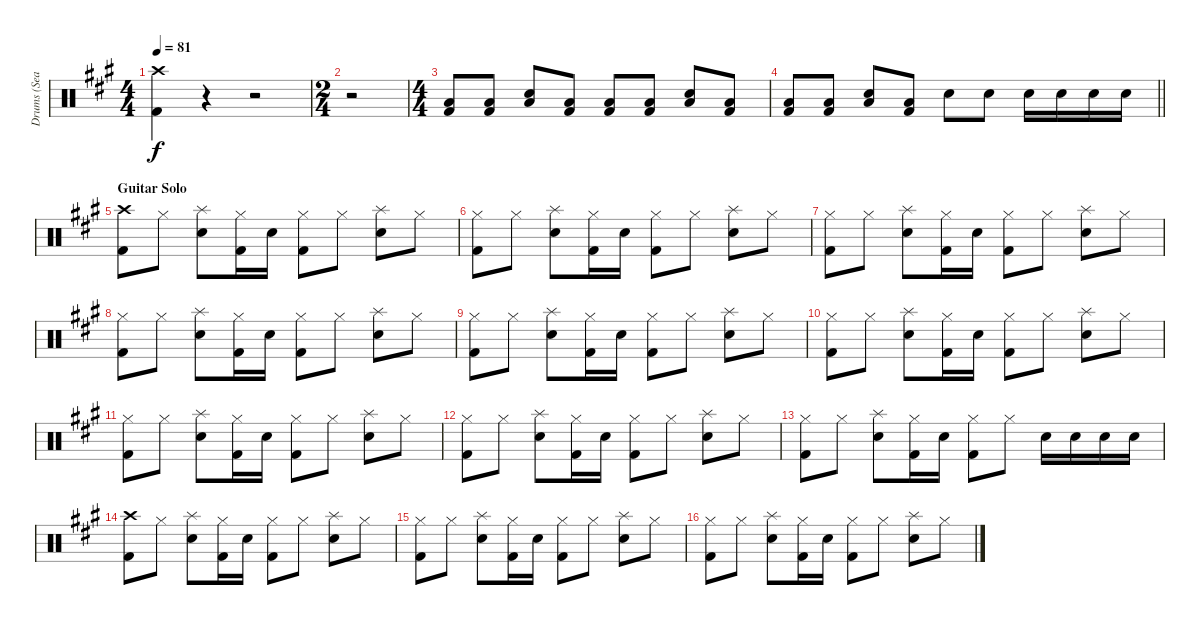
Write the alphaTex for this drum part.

\track ("Drums (Sean)" "Drums (Sea") {instrument percussion}
\staff {score}
\articulation defaults
\ts (4 4)
\tempo 81
\clef neutral
\ks f#minor
("Crash high (hit)" "Kick (hit) 2").4{dy f} r.4 r.2 |
\ts (2 4)
r.2 |
\ts (4 4)
("Low Floor Tom (hit)" "Kick (hit) 2").8 ("Low Floor Tom (hit)" "Kick (hit) 2").8 ("Low Floor Tom (hit)" "Snare (hit) 2").8 ("Low Floor Tom (hit)" "Kick (hit) 2").8 ("Low Floor Tom (hit)" "Kick (hit) 2").8 ("Low Floor Tom (hit)" "Kick (hit) 2").8 ("Low Floor Tom (hit)" "Snare (hit) 2").8 ("Low Floor Tom (hit)" "Kick (hit) 2").8 |
\barLineRight lightlight
("Low Floor Tom (hit)" "Kick (hit) 2").8 ("Low Floor Tom (hit)" "Kick (hit) 2").8 ("Low Floor Tom (hit)" "Snare (hit) 2").8 ("Low Floor Tom (hit)" "Kick (hit) 2").8 "Snare (hit) 2".8 "Snare (hit) 2".8 "Snare (hit) 2".16 "Snare (hit) 2".16 "Snare (hit) 2".16 "Snare (hit) 2".16 |
\section ("" "Guitar Solo")
("Crash high (hit)" "Kick (hit) 2").8 "Hi-Hat (closed)".8 ("Splash (hit)" "Snare (hit) 2").8 ("Hi-Hat (closed)" "Kick (hit) 2").16 "Snare (hit) 2".16 ("Hi-Hat (closed)" "Kick (hit) 2").8 "Hi-Hat (closed)".8 ("Splash (hit)" "Snare (hit) 2").8 "Hi-Hat (closed)".8 |
("Hi-Hat (closed)" "Kick (hit) 2").8 "Hi-Hat (closed)".8 ("Splash (hit)" "Snare (hit) 2").8 ("Hi-Hat (closed)" "Kick (hit) 2").16 "Snare (hit) 2".16 ("Hi-Hat (closed)" "Kick (hit) 2").8 "Hi-Hat (closed)".8 ("Splash (hit)" "Snare (hit) 2").8 "Hi-Hat (closed)".8 |
("Hi-Hat (closed)" "Kick (hit) 2").8 "Hi-Hat (closed)".8 ("Splash (hit)" "Snare (hit) 2").8 ("Hi-Hat (closed)" "Kick (hit) 2").16 "Snare (hit) 2".16 ("Hi-Hat (closed)" "Kick (hit) 2").8 "Hi-Hat (closed)".8 ("Splash (hit)" "Snare (hit) 2").8 "Hi-Hat (closed)".8 |
("Hi-Hat (closed)" "Kick (hit) 2").8 "Hi-Hat (closed)".8 ("Splash (hit)" "Snare (hit) 2").8 ("Hi-Hat (closed)" "Kick (hit) 2").16 "Snare (hit) 2".16 ("Hi-Hat (closed)" "Kick (hit) 2").8 "Hi-Hat (closed)".8 ("Splash (hit)" "Snare (hit) 2").8 "Hi-Hat (closed)".8 |
("Hi-Hat (closed)" "Kick (hit) 2").8 "Hi-Hat (closed)".8 ("Splash (hit)" "Snare (hit) 2").8 ("Hi-Hat (closed)" "Kick (hit) 2").16 "Snare (hit) 2".16 ("Hi-Hat (closed)" "Kick (hit) 2").8 "Hi-Hat (closed)".8 ("Splash (hit)" "Snare (hit) 2").8 "Hi-Hat (closed)".8 |
("Hi-Hat (closed)" "Kick (hit) 2").8 "Hi-Hat (closed)".8 ("Splash (hit)" "Snare (hit) 2").8 ("Hi-Hat (closed)" "Kick (hit) 2").16 "Snare (hit) 2".16 ("Hi-Hat (closed)" "Kick (hit) 2").8 "Hi-Hat (closed)".8 ("Splash (hit)" "Snare (hit) 2").8 "Hi-Hat (closed)".8 |
("Hi-Hat (closed)" "Kick (hit) 2").8 "Hi-Hat (closed)".8 ("Splash (hit)" "Snare (hit) 2").8 ("Hi-Hat (closed)" "Kick (hit) 2").16 "Snare (hit) 2".16 ("Hi-Hat (closed)" "Kick (hit) 2").8 "Hi-Hat (closed)".8 ("Splash (hit)" "Snare (hit) 2").8 "Hi-Hat (closed)".8 |
("Hi-Hat (closed)" "Kick (hit) 2").8 "Hi-Hat (closed)".8 ("Splash (hit)" "Snare (hit) 2").8 ("Hi-Hat (closed)" "Kick (hit) 2").16 "Snare (hit) 2".16 ("Hi-Hat (closed)" "Kick (hit) 2").8 "Hi-Hat (closed)".8 ("Splash (hit)" "Snare (hit) 2").8 "Hi-Hat (closed)".8 |
("Hi-Hat (closed)" "Kick (hit) 2").8 "Hi-Hat (closed)".8 ("Splash (hit)" "Snare (hit) 2").8 ("Hi-Hat (closed)" "Kick (hit) 2").16 "Snare (hit) 2".16 ("Hi-Hat (closed)" "Kick (hit) 2").8 "Hi-Hat (closed)".8 "Snare (hit) 2".16 "Snare (hit) 2".16 "Snare (hit) 2".16 "Snare (hit) 2".16 |
("Crash high (hit)" "Kick (hit) 2").8 "Hi-Hat (closed)".8 ("Splash (hit)" "Snare (hit) 2").8 ("Hi-Hat (closed)" "Kick (hit) 2").16 "Snare (hit) 2".16 ("Hi-Hat (closed)" "Kick (hit) 2").8 "Hi-Hat (closed)".8 ("Splash (hit)" "Snare (hit) 2").8 "Hi-Hat (closed)".8 |
("Hi-Hat (closed)" "Kick (hit) 2").8 "Hi-Hat (closed)".8 ("Splash (hit)" "Snare (hit) 2").8 ("Hi-Hat (closed)" "Kick (hit) 2").16 "Snare (hit) 2".16 ("Hi-Hat (closed)" "Kick (hit) 2").8 "Hi-Hat (closed)".8 ("Splash (hit)" "Snare (hit) 2").8 "Hi-Hat (closed)".8 |
("Hi-Hat (closed)" "Kick (hit) 2").8 "Hi-Hat (closed)".8 ("Splash (hit)" "Snare (hit) 2").8 ("Hi-Hat (closed)" "Kick (hit) 2").16 "Snare (hit) 2".16 ("Hi-Hat (closed)" "Kick (hit) 2").8 "Hi-Hat (closed)".8 ("Splash (hit)" "Snare (hit) 2").8 "Hi-Hat (closed)".8
